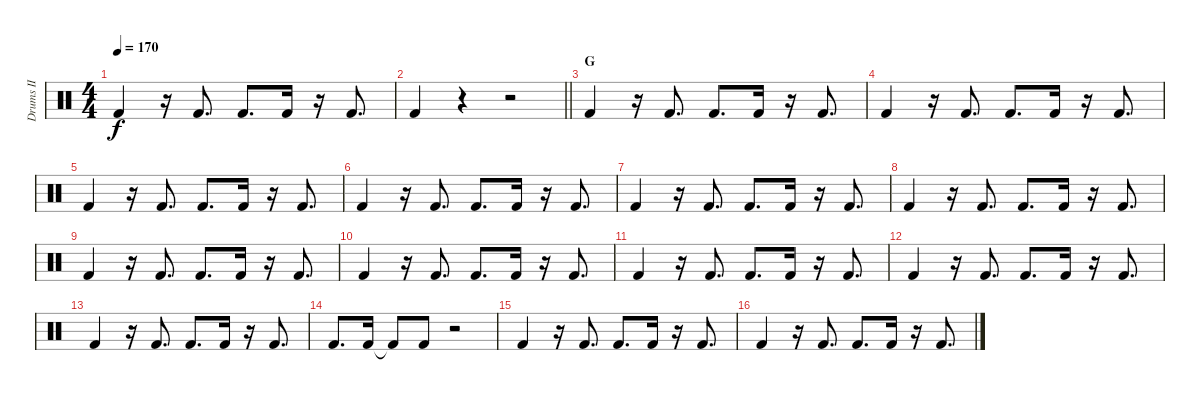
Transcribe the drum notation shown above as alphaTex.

\track ("Drums II" "Drums II") {instrument percussion}
\staff {score}
\articulation defaults
\ts (4 4)
\tempo 170
\clef neutral
\ks c "Kick (hit) 2".4{dy f}
r.16 "Kick (hit) 2".8{d} "Kick (hit) 2".8{d} "Kick (hit) 2".16 r.16 "Kick (hit) 2".8{d} |
\barLineRight lightlight "Kick (hit) 2".4
r.4 r.2 |
\section ("" "G")
"Kick (hit) 2".4 r.16 "Kick (hit) 2".8{d} "Kick (hit) 2".8{d} "Kick (hit) 2".16 r.16 "Kick (hit) 2".8{d} |
"Kick (hit) 2".4 r.16 "Kick (hit) 2".8{d} "Kick (hit) 2".8{d} "Kick (hit) 2".16 r.16 "Kick (hit) 2".8{d} |
"Kick (hit) 2".4 r.16 "Kick (hit) 2".8{d} "Kick (hit) 2".8{d} "Kick (hit) 2".16 r.16 "Kick (hit) 2".8{d} |
"Kick (hit) 2".4 r.16 "Kick (hit) 2".8{d} "Kick (hit) 2".8{d} "Kick (hit) 2".16 r.16 "Kick (hit) 2".8{d} |
"Kick (hit) 2".4 r.16 "Kick (hit) 2".8{d} "Kick (hit) 2".8{d} "Kick (hit) 2".16 r.16 "Kick (hit) 2".8{d} |
"Kick (hit) 2".4 r.16 "Kick (hit) 2".8{d} "Kick (hit) 2".8{d} "Kick (hit) 2".16 r.16 "Kick (hit) 2".8{d} |
"Kick (hit) 2".4 r.16 "Kick (hit) 2".8{d} "Kick (hit) 2".8{d} "Kick (hit) 2".16 r.16 "Kick (hit) 2".8{d} |
"Kick (hit) 2".4 r.16 "Kick (hit) 2".8{d} "Kick (hit) 2".8{d} "Kick (hit) 2".16 r.16 "Kick (hit) 2".8{d} |
"Kick (hit) 2".4 r.16 "Kick (hit) 2".8{d} "Kick (hit) 2".8{d} "Kick (hit) 2".16 r.16 "Kick (hit) 2".8{d} |
"Kick (hit) 2".4 r.16 "Kick (hit) 2".8{d} "Kick (hit) 2".8{d} "Kick (hit) 2".16 r.16 "Kick (hit) 2".8{d} |
"Kick (hit) 2".4 r.16 "Kick (hit) 2".8{d} "Kick (hit) 2".8{d} "Kick (hit) 2".16 r.16 "Kick (hit) 2".8{d} |
"Kick (hit) 2".8{d} "Kick (hit) 2".16 "Kick (hit) 2"{t}.8 "Kick (hit) 2".8 r.2 |
"Kick (hit) 2".4 r.16 "Kick (hit) 2".8{d} "Kick (hit) 2".8{d} "Kick (hit) 2".16 r.16 "Kick (hit) 2".8{d} |
"Kick (hit) 2".4 r.16 "Kick (hit) 2".8{d} "Kick (hit) 2".8{d} "Kick (hit) 2".16 r.16 "Kick (hit) 2".8{d}
